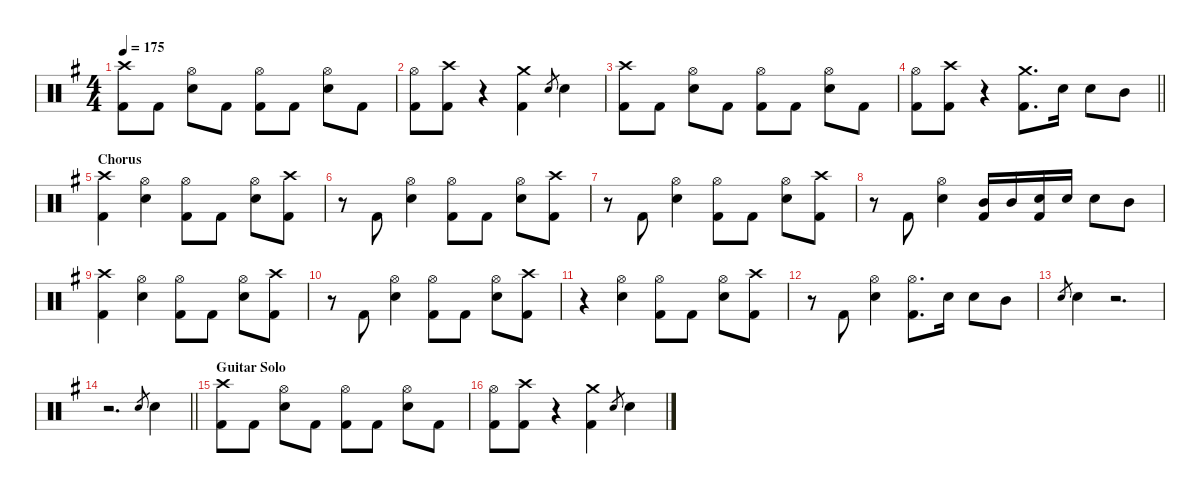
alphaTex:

\hideDynamics
\bracketExtendMode nobrackets
\singleTrackTrackNamePolicy hidden
\multiTrackTrackNamePolicy hidden
\firstSystemTrackNameMode fullname
\firstSystemTrackNameOrientation horizontal
\otherSystemsTrackNameOrientation horizontal
\track ("Drumkit" "Drums") {instrument percussion}
\staff {score}
\articulation defaults
\ts (4 4)
\tempo 175
\clef neutral
\ks g
("Crash high (hit)"{acc forcenatural} "Kick (hit) 2"{acc forcenatural}).8{dy f beam Down} "Kick (hit) 2"{acc forcenatural}.8{dy fff beam Down} ("Hi-Hat (open)"{acc forcenatural} "Snare (hit) 2"{acc forcenatural}).8{dy f beam Down} "Kick (hit) 2"{acc forcenatural}.8{dy fff beam Down} ("Hi-Hat (open)"{acc forcenatural} "Kick (hit) 2"{acc forcenatural}).8{dy f beam Down} "Kick (hit) 2"{acc forcenatural}.8{dy fff beam Down} ("Hi-Hat (open)"{acc forcenatural} "Snare (hit) 2"{acc forcenatural}).8{dy f beam Down} "Kick (hit) 2"{acc forcenatural}.8{dy fff beam Down} |
("Hi-Hat (open)"{acc forcenatural} "Kick (hit) 2"{acc forcenatural}).8{dy f beam Down} ("Crash high (hit)"{acc forcenatural} "Kick (hit) 2"{acc forcenatural}).8{beam Down} r.4{beam Down} ("Crash medium (hit)"{acc forcenatural} "Kick (hit) 2"{acc forcenatural}).4{beam Down} "Snare (hit) 2"{acc forcenatural}.8{gr dy mf beam Up} "Snare (hit) 2"{acc forcenatural}.4{dy f beam Down} |
("Crash high (hit)"{acc forcenatural} "Kick (hit) 2"{acc forcenatural}).8{beam Down} "Kick (hit) 2"{acc forcenatural}.8{dy fff beam Down} ("Hi-Hat (open)"{acc forcenatural} "Snare (hit) 2"{acc forcenatural}).8{dy f beam Down} "Kick (hit) 2"{acc forcenatural}.8{dy fff beam Down} ("Hi-Hat (open)"{acc forcenatural} "Kick (hit) 2"{acc forcenatural}).8{dy f beam Down} "Kick (hit) 2"{acc forcenatural}.8{dy fff beam Down} ("Hi-Hat (open)"{acc forcenatural} "Snare (hit) 2"{acc forcenatural}).8{dy f beam Down} "Kick (hit) 2"{acc forcenatural}.8{dy fff beam Down} |
\barLineRight lightlight
("Hi-Hat (open)"{acc forcenatural} "Kick (hit) 2"{acc forcenatural}).8{dy f beam Down} ("Crash high (hit)"{acc forcenatural} "Kick (hit) 2"{acc forcenatural}).8{beam Down} r.4{beam Down} ("Crash medium (hit)"{acc forcenatural} "Kick (hit) 2"{acc forcenatural}).8{d beam Down} "Snare (hit) 2"{acc forcenatural}.16{beam Down} "Snare (hit) 2"{acc forcenatural}.8{beam Down} "Mid Tom (hit)"{acc forcenatural}.8{beam Down} |
\section ("" "Chorus ")
("Crash high (hit)"{acc forcenatural} "Kick (hit) 2"{acc forcenatural}).4{beam Down} ("Hi-Hat (open)"{acc forcenatural} "Snare (hit) 2"{acc forcenatural}).4{beam Down} ("Hi-Hat (open)"{acc forcenatural} "Kick (hit) 2"{acc forcenatural}).8{beam Down} "Kick (hit) 2"{acc forcenatural}.8{dy fff beam Down} ("Hi-Hat (open)"{acc forcenatural} "Snare (hit) 2"{acc forcenatural}).8{dy f beam Down} ("Crash high (hit)"{acc forcenatural} "Kick (hit) 2"{acc forcenatural}).8{beam Down} |
r.8{beam Down} "Kick (hit) 2"{acc forcenatural}.8{dy fff beam Up} ("Hi-Hat (open)"{acc forcenatural} "Snare (hit) 2"{acc forcenatural}).4{dy f beam Down} ("Hi-Hat (open)"{acc forcenatural} "Kick (hit) 2"{acc forcenatural}).8{beam Down} "Kick (hit) 2"{acc forcenatural}.8{dy fff beam Down} ("Hi-Hat (open)"{acc forcenatural} "Snare (hit) 2"{acc forcenatural}).8{dy f beam Down} ("Crash high (hit)"{acc forcenatural} "Kick (hit) 2"{acc forcenatural}).8{beam Down} |
r.8{beam Down} "Kick (hit) 2"{acc forcenatural}.8{dy fff beam Up} ("Hi-Hat (open)"{acc forcenatural} "Snare (hit) 2"{acc forcenatural}).4{dy f beam Down} ("Hi-Hat (open)"{acc forcenatural} "Kick (hit) 2"{acc forcenatural}).8{beam Down} "Kick (hit) 2"{acc forcenatural}.8{dy fff beam Down} ("Hi-Hat (open)"{acc forcenatural} "Snare (hit) 2"{acc forcenatural}).8{dy f beam Down} ("Crash high (hit)"{acc forcenatural} "Kick (hit) 2"{acc forcenatural}).8{beam Down} |
r.8{beam Down} "Kick (hit) 2"{acc forcenatural}.8{dy fff beam Up} ("Hi-Hat (open)"{acc forcenatural} "Snare (hit) 2"{acc forcenatural}).4{dy f beam Down} ("Mid Tom (hit)"{acc forcenatural} "Kick (hit) 2"{acc forcenatural}).16{beam Up} "Mid Tom (hit)"{acc forcenatural}.16{beam Up} ("Snare (hit) 2"{acc forcenatural} "Kick (hit) 2"{acc forcenatural}).16{beam Up} "Snare (hit) 2"{acc forcenatural}.16{beam Up} "Snare (hit) 2"{acc forcenatural}.8{beam Down} "Mid Tom (hit)"{acc forcenatural}.8{beam Down} |
("Crash high (hit)"{acc forcenatural} "Kick (hit) 2"{acc forcenatural}).4{beam Down} ("Hi-Hat (open)"{acc forcenatural} "Snare (hit) 2"{acc forcenatural}).4{beam Down} ("Hi-Hat (open)"{acc forcenatural} "Kick (hit) 2"{acc forcenatural}).8{beam Down} "Kick (hit) 2"{acc forcenatural}.8{dy fff beam Down} ("Hi-Hat (open)"{acc forcenatural} "Snare (hit) 2"{acc forcenatural}).8{dy f beam Down} ("Crash high (hit)"{acc forcenatural} "Kick (hit) 2"{acc forcenatural}).8{beam Down} |
r.8{beam Down} "Kick (hit) 2"{acc forcenatural}.8{dy fff beam Up} ("Hi-Hat (open)"{acc forcenatural} "Snare (hit) 2"{acc forcenatural}).4{dy f beam Down} ("Hi-Hat (open)"{acc forcenatural} "Kick (hit) 2"{acc forcenatural}).8{beam Down} "Kick (hit) 2"{acc forcenatural}.8{dy fff beam Down} ("Hi-Hat (open)"{acc forcenatural} "Snare (hit) 2"{acc forcenatural}).8{dy f beam Down} ("Crash high (hit)"{acc forcenatural} "Kick (hit) 2"{acc forcenatural}).8{beam Down} |
r.4{beam Down} ("Hi-Hat (open)"{acc forcenatural} "Snare (hit) 2"{acc forcenatural}).4{beam Down} ("Hi-Hat (open)"{acc forcenatural} "Kick (hit) 2"{acc forcenatural}).8{beam Down} "Kick (hit) 2"{acc forcenatural}.8{dy fff beam Down} ("Hi-Hat (open)"{acc forcenatural} "Snare (hit) 2"{acc forcenatural}).8{dy f beam Down} ("Crash high (hit)"{acc forcenatural} "Kick (hit) 2"{acc forcenatural}).8{beam Down} |
r.8{beam Down} "Kick (hit) 2"{acc forcenatural}.8{dy fff beam Up} ("Hi-Hat (open)"{acc forcenatural} "Snare (hit) 2"{acc forcenatural}).4{dy f beam Down} ("Hi-Hat (open)"{acc forcenatural} "Kick (hit) 2"{acc forcenatural}).8{d beam Down} "Snare (hit) 2"{acc forcenatural}.16{beam Down} "Snare (hit) 2"{acc forcenatural}.8{beam Down} "Mid Tom (hit)"{acc forcenatural}.8{beam Down} |
"Snare (hit) 2"{acc forcenatural}.8{gr dy mf beam Up} "Snare (hit) 2"{acc forcenatural}.4{dy f beam Down} r.2{d beam Down} |
\barLineRight lightlight
r.2{d beam Down} "Snare (hit) 2"{acc forcenatural}.8{gr dy mf beam Up} "Snare (hit) 2"{acc forcenatural}.4{dy f beam Down} |
\section ("" "Guitar Solo")
("Crash high (hit)"{acc forcenatural} "Kick (hit) 2"{acc forcenatural}).8{beam Down} "Kick (hit) 2"{acc forcenatural}.8{dy fff beam Down} ("Hi-Hat (open)"{acc forcenatural} "Snare (hit) 2"{acc forcenatural}).8{dy f beam Down} "Kick (hit) 2"{acc forcenatural}.8{dy fff beam Down} ("Hi-Hat (open)"{acc forcenatural} "Kick (hit) 2"{acc forcenatural}).8{dy f beam Down} "Kick (hit) 2"{acc forcenatural}.8{dy fff beam Down} ("Hi-Hat (open)"{acc forcenatural} "Snare (hit) 2"{acc forcenatural}).8{dy f beam Down} "Kick (hit) 2"{acc forcenatural}.8{dy fff beam Down} |
("Hi-Hat (open)"{acc forcenatural} "Kick (hit) 2"{acc forcenatural}).8{dy f beam Down} ("Crash high (hit)"{acc forcenatural} "Kick (hit) 2"{acc forcenatural}).8{beam Down} r.4{beam Down} ("Crash medium (hit)"{acc forcenatural} "Kick (hit) 2"{acc forcenatural}).4{beam Down} "Snare (hit) 2"{acc forcenatural}.8{gr dy mf beam Up} "Snare (hit) 2"{acc forcenatural}.4{dy f beam Down}
